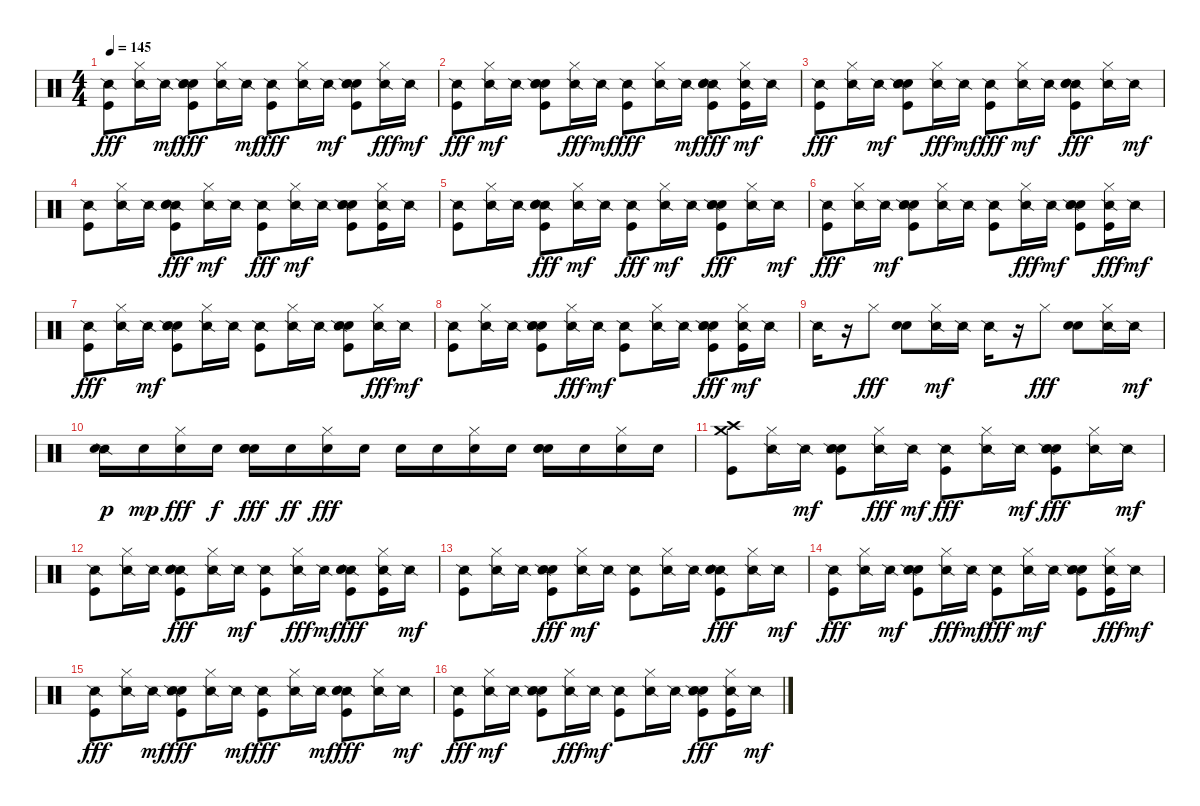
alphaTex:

\track "" {instrument percussion}
\staff {score}
\articulation defaults
\ts (4 4)
\tempo 145
\clef neutral
\ks c
("Snare (side stick) 2" "Kick (hit)").8{dy fff} ("Snare (side stick) 2" "Hi-Hat (closed)").16 "Snare (side stick) 2".16{dy mf} ("Hand Clap (hit)" "Electric Snare (hit)" "Snare (side stick) 2" "Kick (hit)").8{dy fff} ("Snare (side stick) 2" "Hi-Hat (closed)").16 "Snare (side stick) 2".16{dy mf} ("Snare (side stick) 2" "Kick (hit)").8{dy fff} ("Snare (side stick) 2" "Hi-Hat (closed)").16 "Snare (side stick) 2".16{dy mf} ("Electric Snare (hit)" "Kick (hit)" "Hand Clap (hit)" "Snare (side stick) 2").8 ("Snare (side stick) 2" "Hi-Hat (closed)").16{dy fff} "Snare (side stick) 2".16{dy mf} |
("Snare (side stick) 2" "Kick (hit)").8{dy fff} ("Hi-Hat (closed)" "Snare (side stick) 2").16{dy mf} "Snare (side stick) 2".16 ("Hand Clap (hit)" "Kick (hit)" "Electric Snare (hit)" "Snare (side stick) 2").8 ("Snare (side stick) 2" "Hi-Hat (closed)").16{dy fff} "Snare (side stick) 2".16{dy mf} ("Snare (side stick) 2" "Kick (hit)").8{dy fff} ("Snare (side stick) 2" "Hi-Hat (closed)").16 "Snare (side stick) 2".16{dy mf} ("Snare (side stick) 2" "Electric Snare (hit)" "Kick (hit)" "Hand Clap (hit)").8{dy fff} ("Kick (hit)" "Hi-Hat (closed)" "Snare (side stick) 2").16{dy mf} "Snare (side stick) 2".16 |
("Snare (side stick) 2" "Kick (hit)").8{dy fff} ("Snare (side stick) 2" "Hi-Hat (closed)").16 "Snare (side stick) 2".16{dy mf} ("Electric Snare (hit)" "Hand Clap (hit)" "Kick (hit)" "Snare (side stick) 2").8 ("Snare (side stick) 2" "Hi-Hat (closed)").16{dy fff} "Snare (side stick) 2".16{dy mf} ("Snare (side stick) 2" "Kick (hit)").8{dy fff} ("Hi-Hat (closed)" "Snare (side stick) 2").16{dy mf} "Snare (side stick) 2".16 ("Snare (side stick) 2" "Hand Clap (hit)" "Electric Snare (hit)" "Kick (hit)").8{dy fff} ("Snare (side stick) 2" "Hi-Hat (closed)").16 "Snare (side stick) 2".16{dy mf} |
("Kick (hit)" "Snare (side stick) 2").8 ("Hi-Hat (closed)" "Snare (side stick) 2").16 "Snare (side stick) 2".16 ("Snare (side stick) 2" "Hand Clap (hit)" "Kick (hit)" "Electric Snare (hit)").8{dy fff} ("Hi-Hat (closed)" "Snare (side stick) 2").16{dy mf} "Snare (side stick) 2".16 ("Snare (side stick) 2" "Kick (hit)").8{dy fff} ("Hi-Hat (closed)" "Snare (side stick) 2").16{dy mf} "Snare (side stick) 2".16 ("Hand Clap (hit)" "Kick (hit)" "Electric Snare (hit)" "Snare (side stick) 2").8 ("Hi-Hat (closed)" "Kick (hit)" "Snare (side stick) 2").16 "Snare (side stick) 2".16 |
("Kick (hit)" "Snare (side stick) 2").8 ("Hi-Hat (closed)" "Snare (side stick) 2").16 "Snare (side stick) 2".16 ("Snare (side stick) 2" "Hand Clap (hit)" "Electric Snare (hit)" "Kick (hit)").8{dy fff} ("Hi-Hat (closed)" "Snare (side stick) 2").16{dy mf} "Snare (side stick) 2".16 ("Snare (side stick) 2" "Kick (hit)").8{dy fff} ("Hi-Hat (closed)" "Snare (side stick) 2").16{dy mf} "Snare (side stick) 2".16 ("Electric Snare (hit)" "Hand Clap (hit)" "Snare (side stick) 2" "Kick (hit)").8{dy fff} ("Snare (side stick) 2" "Hi-Hat (closed)").16 "Snare (side stick) 2".16{dy mf} |
("Snare (side stick) 2" "Kick (hit)").8{dy fff} ("Snare (side stick) 2" "Hi-Hat (closed)").16 "Snare (side stick) 2".16{dy mf} ("Hand Clap (hit)" "Kick (hit)" "Electric Snare (hit)" "Snare (side stick) 2").8 ("Hi-Hat (closed)" "Snare (side stick) 2").16 "Snare (side stick) 2".16 ("Kick (hit)" "Snare (side stick) 2").8 ("Snare (side stick) 2" "Hi-Hat (closed)").16{dy fff} "Snare (side stick) 2".16{dy mf} ("Electric Snare (hit)" "Hand Clap (hit)" "Kick (hit)" "Snare (side stick) 2").8 ("Snare (side stick) 2" "Hi-Hat (closed)" "Kick (hit)").16{dy fff} "Snare (side stick) 2".16{dy mf} |
("Snare (side stick) 2" "Kick (hit)").8{dy fff} ("Snare (side stick) 2" "Hi-Hat (closed)").16 "Snare (side stick) 2".16{dy mf} ("Kick (hit)" "Electric Snare (hit)" "Hand Clap (hit)" "Snare (side stick) 2").8 ("Hi-Hat (closed)" "Snare (side stick) 2").16 "Snare (side stick) 2".16 ("Kick (hit)" "Snare (side stick) 2").8 ("Hi-Hat (closed)" "Snare (side stick) 2").16 "Snare (side stick) 2".16 ("Electric Snare (hit)" "Hand Clap (hit)" "Kick (hit)" "Snare (side stick) 2").8 ("Snare (side stick) 2" "Hi-Hat (closed)").16{dy fff} "Snare (side stick) 2".16{dy mf} |
("Kick (hit)" "Snare (side stick) 2").8 ("Hi-Hat (closed)" "Snare (side stick) 2").16 "Snare (side stick) 2".16 ("Kick (hit)" "Hand Clap (hit)" "Electric Snare (hit)" "Snare (side stick) 2").8 ("Snare (side stick) 2" "Hi-Hat (closed)").16{dy fff} "Snare (side stick) 2".16{dy mf} ("Kick (hit)" "Snare (side stick) 2").8 ("Hi-Hat (closed)" "Snare (side stick) 2").16 "Snare (side stick) 2".16 ("Hand Clap (hit)" "Electric Snare (hit)" "Snare (side stick) 2" "Kick (hit)").8{dy fff} ("Kick (hit)" "Hi-Hat (closed)" "Snare (side stick) 2").16{dy mf} "Snare (side stick) 2".16 |
"Snare (side stick) 2".16 r.16 "Hi-Hat (closed)".8{dy fff} ("Hand Clap (hit)" "Electric Snare (hit)").8 ("Hi-Hat (closed)" "Snare (side stick) 2").16{dy mf} "Snare (side stick) 2".16 "Snare (side stick) 2".16 r.16 "Hi-Hat (closed)".8{dy fff} ("Electric Snare (hit)" "Hand Clap (hit)").8 ("Snare (side stick) 2" "Hi-Hat (closed)").16 "Snare (side stick) 2".16{dy mf} |
("Snare (side stick) 2" "Snare (hit) 2").16{dy p} "Snare (hit) 2".16{dy mp} ("Snare (hit) 2" "Hi-Hat (closed)").16{dy fff} "Snare (hit) 2".16{dy f} ("Hand Clap (hit)" "Electric Snare (hit)" "Snare (hit) 2").16{dy fff} "Snare (hit) 2".16{dy ff} ("Snare (hit) 2" "Hi-Hat (closed)").16{dy fff} "Snare (hit) 2".16 "Snare (hit) 2".16 "Snare (hit) 2".16 ("Hi-Hat (closed)" "Snare (hit) 2").16 "Snare (hit) 2".16 ("Hand Clap (hit)" "Electric Snare (hit)" "Snare (hit) 2").16 "Snare (hit) 2".16 ("Snare (hit) 2" "Hi-Hat (closed)").16 "Snare (hit) 2".16 |
("Crash medium (hit)" "Crash high (hit)" "Kick (hit)").8 ("Snare (side stick) 2" "Hi-Hat (closed)").16 "Snare (side stick) 2".16{dy mf} ("Electric Snare (hit)" "Hand Clap (hit)" "Kick (hit)" "Snare (side stick) 2").8 ("Snare (side stick) 2" "Hi-Hat (closed)").16{dy fff} "Snare (side stick) 2".16{dy mf} ("Snare (side stick) 2" "Kick (hit)").8{dy fff} ("Snare (side stick) 2" "Hi-Hat (closed)").16 "Snare (side stick) 2".16{dy mf} ("Electric Snare (hit)" "Kick (hit)" "Snare (side stick) 2" "Hand Clap (hit)").8{dy fff} ("Snare (side stick) 2" "Hi-Hat (closed)").16 "Snare (side stick) 2".16{dy mf} |
("Kick (hit)" "Snare (side stick) 2").8 ("Hi-Hat (closed)" "Snare (side stick) 2").16 "Snare (side stick) 2".16 ("Snare (side stick) 2" "Kick (hit)" "Hand Clap (hit)" "Electric Snare (hit)").8{dy fff} ("Snare (side stick) 2" "Hi-Hat (closed)").16 "Snare (side stick) 2".16{dy mf} ("Kick (hit)" "Snare (side stick) 2").8 ("Snare (side stick) 2" "Hi-Hat (closed)").16{dy fff} "Snare (side stick) 2".16{dy mf} ("Snare (side stick) 2" "Electric Snare (hit)" "Kick (hit)" "Hand Clap (hit)").8{dy fff} ("Snare (side stick) 2" "Kick (hit)" "Hi-Hat (closed)").16 "Snare (side stick) 2".16{dy mf} |
("Kick (hit)" "Snare (side stick) 2").8 ("Hi-Hat (closed)" "Snare (side stick) 2").16 "Snare (side stick) 2".16 ("Electric Snare (hit)" "Snare (side stick) 2" "Kick (hit)" "Hand Clap (hit)").8{dy fff} ("Hi-Hat (closed)" "Snare (side stick) 2").16{dy mf} "Snare (side stick) 2".16 ("Kick (hit)" "Snare (side stick) 2").8 ("Hi-Hat (closed)" "Snare (side stick) 2").16 "Snare (side stick) 2".16 ("Snare (side stick) 2" "Electric Snare (hit)" "Kick (hit)" "Hand Clap (hit)").8{dy fff} ("Snare (side stick) 2" "Hi-Hat (closed)").16 "Snare (side stick) 2".16{dy mf} |
("Snare (side stick) 2" "Kick (hit)").8{dy fff} ("Snare (side stick) 2" "Hi-Hat (closed)").16 "Snare (side stick) 2".16{dy mf} ("Kick (hit)" "Hand Clap (hit)" "Snare (side stick) 2" "Electric Snare (hit)").8 ("Snare (side stick) 2" "Hi-Hat (closed)").16{dy fff} "Snare (side stick) 2".16{dy mf} ("Snare (side stick) 2" "Kick (hit)").8{dy fff} ("Hi-Hat (closed)" "Snare (side stick) 2").16{dy mf} "Snare (side stick) 2".16 ("Kick (hit)" "Electric Snare (hit)" "Hand Clap (hit)" "Snare (side stick) 2").8 ("Snare (side stick) 2" "Hi-Hat (closed)" "Kick (hit)").16{dy fff} "Snare (side stick) 2".16{dy mf} |
("Snare (side stick) 2" "Kick (hit)").8{dy fff} ("Snare (side stick) 2" "Hi-Hat (closed)").16 "Snare (side stick) 2".16{dy mf} ("Electric Snare (hit)" "Kick (hit)" "Snare (side stick) 2" "Hand Clap (hit)").8{dy fff} ("Snare (side stick) 2" "Hi-Hat (closed)").16 "Snare (side stick) 2".16{dy mf} ("Snare (side stick) 2" "Kick (hit)").8{dy fff} ("Snare (side stick) 2" "Hi-Hat (closed)").16 "Snare (side stick) 2".16{dy mf} ("Snare (side stick) 2" "Kick (hit)" "Electric Snare (hit)" "Hand Clap (hit)").8{dy fff} ("Snare (side stick) 2" "Hi-Hat (closed)").16 "Snare (side stick) 2".16{dy mf} |
("Snare (side stick) 2" "Kick (hit)").8{dy fff} ("Hi-Hat (closed)" "Snare (side stick) 2").16{dy mf} "Snare (side stick) 2".16 ("Kick (hit)" "Hand Clap (hit)" "Snare (side stick) 2" "Electric Snare (hit)").8 ("Snare (side stick) 2" "Hi-Hat (closed)").16{dy fff} "Snare (side stick) 2".16{dy mf} ("Kick (hit)" "Snare (side stick) 2").8 ("Hi-Hat (closed)" "Snare (side stick) 2").16 "Snare (side stick) 2".16 ("Hand Clap (hit)" "Snare (side stick) 2" "Kick (hit)" "Electric Snare (hit)").8{dy fff} ("Hi-Hat (closed)" "Snare (side stick) 2" "Kick (hit)").16 "Snare (side stick) 2".16{dy mf}
